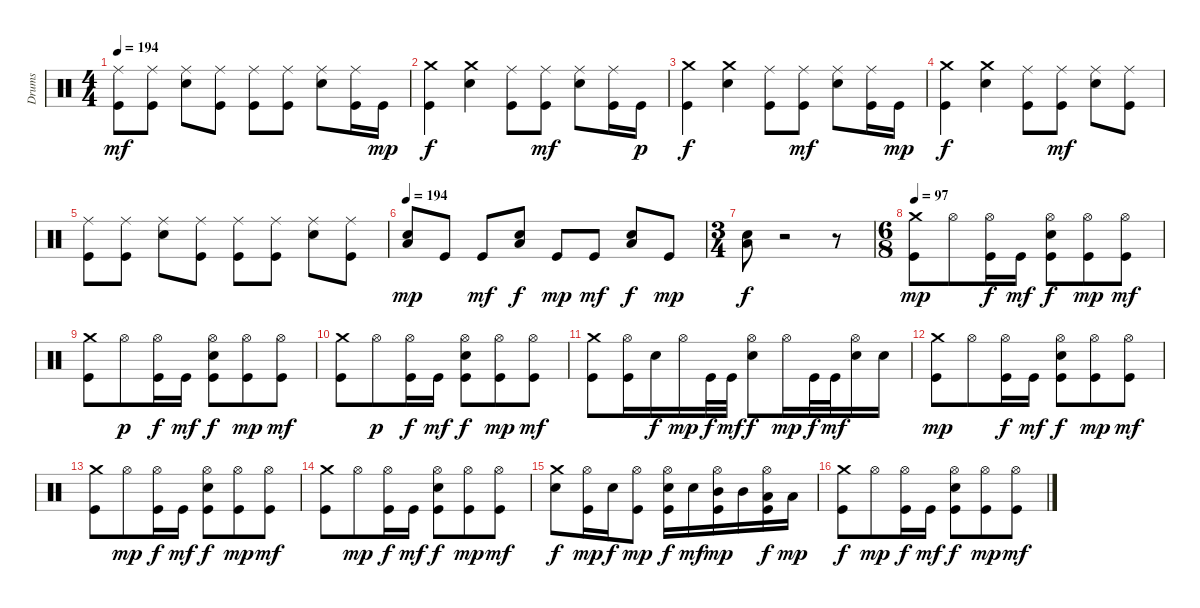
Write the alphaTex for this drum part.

\track ("Drums" "Drums") {instrument percussion}
\staff {score}
\articulation defaults
\ts (4 4)
\tempo 194
\clef neutral
\ks c
("Kick (hit)" "Ride (middle)").8{dy mf} ("Kick (hit)" "Ride (middle)").8 ("Snare (hit) 2" "Ride (middle)").8 ("Kick (hit)" "Ride (middle)").8 ("Kick (hit)" "Ride (middle)").8 ("Kick (hit)" "Ride (middle)").8 ("Snare (hit) 2" "Ride (middle)").8 ("Kick (hit)" "Ride (middle)").16 "Kick (hit)".16{dy mp} |
("Crash medium (hit)" "Kick (hit)").4{dy f} ("Crash medium (hit)" "Snare (hit) 2").4 ("Kick (hit)" "Ride (middle)").8 ("Kick (hit)" "Ride (middle)").8{dy mf} ("Snare (hit) 2" "Ride (middle)").8 ("Kick (hit)" "Ride (middle)").16 "Kick (hit)".16{dy p} |
("Crash medium (hit)" "Kick (hit)").4{dy f} ("Crash medium (hit)" "Snare (hit) 2").4 ("Kick (hit)" "Ride (middle)").8 ("Kick (hit)" "Ride (middle)").8{dy mf} ("Snare (hit) 2" "Ride (middle)").8 ("Kick (hit)" "Ride (middle)").16 "Kick (hit)".16{dy mp} |
("Crash medium (hit)" "Kick (hit)").4{dy f} ("Crash medium (hit)" "Snare (hit) 2").4 ("Kick (hit)" "Ride (middle)").8 ("Kick (hit)" "Ride (middle)").8{dy mf} ("Snare (hit) 2" "Ride (middle)").8 ("Kick (hit)" "Ride (middle)").8 |
("Kick (hit)" "Ride (middle)").8 ("Kick (hit)" "Ride (middle)").8 ("Snare (hit) 2" "Ride (middle)").8 ("Kick (hit)" "Ride (middle)").8 ("Kick (hit)" "Ride (middle)").8 ("Kick (hit)" "Ride (middle)").8 ("Snare (hit) 2" "Ride (middle)").8 ("Kick (hit)" "Ride (middle)").8 |
\tempo 194
("Low Floor Tom (hit)" "Snare (hit) 2").8{dy mp} "Kick (hit)".8 "Kick (hit)".8{dy mf} ("Low Floor Tom (hit)" "Snare (hit) 2").8{dy f} "Kick (hit)".8{dy mp} "Kick (hit)".8{dy mf} ("Low Floor Tom (hit)" "Snare (hit) 2").8{dy f} "Kick (hit)".8{dy mp} |
\ts (3 4)
("Low Floor Tom (hit)" "Snare (hit) 2").8{dy f} r.2 r.8 |
\ts (6 8)
\tempo 97
("Crash medium (hit)" "Kick (hit)").8{dy mp} "Hi-Hat (open)".8 ("Hi-Hat (open)" "Kick (hit)").16{dy f} "Kick (hit)".16{dy mf} ("Hi-Hat (open)" "Kick (hit)" "Snare (hit) 2").8{dy f} ("Hi-Hat (open)" "Kick (hit)").8{dy mp} ("Hi-Hat (open)" "Kick (hit)").8{dy mf} |
("Crash medium (hit)" "Kick (hit)").8 "Hi-Hat (open)".8{dy p} ("Hi-Hat (open)" "Kick (hit)").16{dy f} "Kick (hit)".16{dy mf} ("Hi-Hat (open)" "Kick (hit)" "Snare (hit) 2").8{dy f} ("Hi-Hat (open)" "Kick (hit)").8{dy mp} ("Hi-Hat (open)" "Kick (hit)").8{dy mf} |
("Crash medium (hit)" "Kick (hit)").8 "Hi-Hat (open)".8{dy p} ("Hi-Hat (open)" "Kick (hit)").16{dy f} "Kick (hit)".16{dy mf} ("Hi-Hat (open)" "Kick (hit)" "Snare (hit) 2").8{dy f} ("Hi-Hat (open)" "Kick (hit)").8{dy mp} ("Hi-Hat (open)" "Kick (hit)").8{dy mf} |
("Crash medium (hit)" "Kick (hit)").8 ("Hi-Hat (open)" "Kick (hit)").16 "Snare (hit) 2".16{dy f} "Hi-Hat (open)".16{dy mp} "Kick (hit)".32{dy f} "Kick (hit)".32{dy mf} ("Hi-Hat (open)" "Snare (hit) 2").8{dy f} "Hi-Hat (open)".16{dy mp} "Kick (hit)".32{dy f} "Kick (hit)".32{dy mf} ("Hi-Hat (open)" "Snare (hit) 2").16 "Snare (hit) 2".16 |
("Crash medium (hit)" "Kick (hit)").8{dy mp} "Hi-Hat (open)".8 ("Hi-Hat (open)" "Kick (hit)").16{dy f} "Kick (hit)".16{dy mf} ("Hi-Hat (open)" "Kick (hit)" "Snare (hit) 2").8{dy f} ("Hi-Hat (open)" "Kick (hit)").8{dy mp} ("Hi-Hat (open)" "Kick (hit)").8{dy mf} |
("Crash medium (hit)" "Kick (hit)").8 "Hi-Hat (open)".8{dy mp} ("Hi-Hat (open)" "Kick (hit)").16{dy f} "Kick (hit)".16{dy mf} ("Hi-Hat (open)" "Kick (hit)" "Snare (hit) 2").8{dy f} ("Hi-Hat (open)" "Kick (hit)").8{dy mp} ("Hi-Hat (open)" "Kick (hit)").8{dy mf} |
("Crash medium (hit)" "Kick (hit)").8 "Hi-Hat (open)".8{dy mp} ("Hi-Hat (open)" "Kick (hit)").16{dy f} "Kick (hit)".16{dy mf} ("Hi-Hat (open)" "Kick (hit)" "Snare (hit) 2").8{dy f} ("Hi-Hat (open)" "Kick (hit)").8{dy mp} ("Hi-Hat (open)" "Kick (hit)").8{dy mf} |
("Crash medium (hit)" "Snare (hit) 2").8{dy f} ("Hi-Hat (open)" "Kick (hit)").16{dy mp} "Snare (hit) 2".16{dy f} ("Hi-Hat (open)" "Kick (hit)").8{dy mp} ("Hi-Hat (open)" "Kick (hit)" "Snare (hit) 2").16{dy f} "Snare (hit) 2".16{dy mf} ("Hi-Hat (open)" "Mid Tom (hit)" "Kick (hit)").16{dy mp} "Mid Tom (hit)".16 ("Hi-Hat (open)" "Low Tom (hit)" "Kick (hit)").16{dy f} "Low Tom (hit)".16{dy mp} |
("Crash medium (hit)" "Kick (hit)").8{dy f} "Hi-Hat (open)".8{dy mp} ("Hi-Hat (open)" "Kick (hit)").16{dy f} "Kick (hit)".16{dy mf} ("Hi-Hat (open)" "Kick (hit)" "Snare (hit) 2").8{dy f} ("Hi-Hat (open)" "Kick (hit)").8{dy mp} ("Hi-Hat (open)" "Kick (hit)").8{dy mf}
